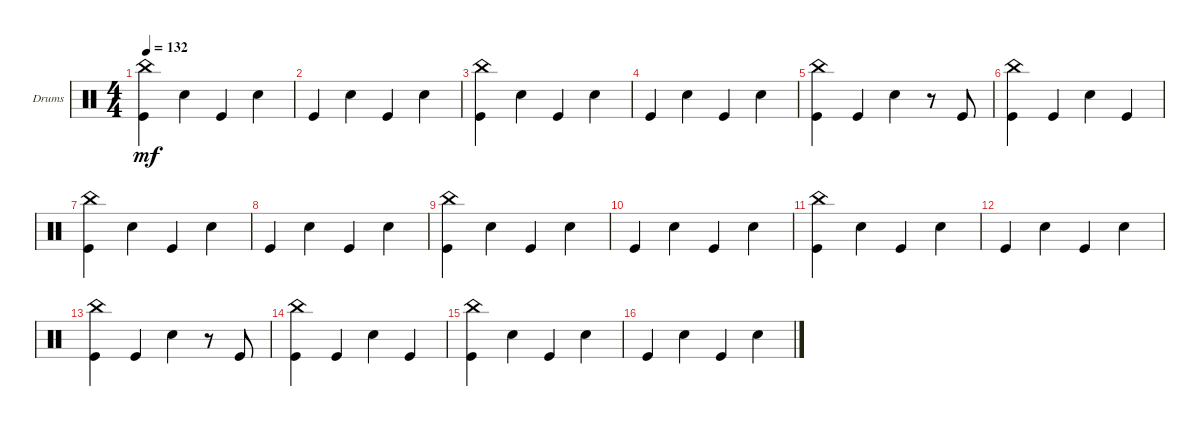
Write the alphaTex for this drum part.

\defaultSystemsLayout 4
\bracketExtendMode groupsimilarinstruments
\firstSystemTrackNameOrientation horizontal
\otherSystemsTrackNameOrientation horizontal
\track ("Drumkit" "Drums") {instrument percussion}
\staff {score}
\articulation defaults
\ts (4 4)
\tempo 132
\clef neutral
\scale
0.472222
\ks c
("Kick (hit)" "China (hit)").4{dy mf} "Snare (hit) 2".4 "Kick (hit)".4 "Snare (hit) 2".4 |
\scale
0.263889 "Kick (hit)".4 "Snare (hit) 2".4 "Kick (hit)".4 "Snare (hit) 2".4 |
\scale
0.263889 ("Kick (hit)" "China (hit)").4 "Snare (hit) 2".4 "Kick (hit)".4 "Snare (hit) 2".4 |
\scale
0.333333 "Kick (hit)".4 "Snare (hit) 2".4 "Kick (hit)".4 "Snare (hit) 2".4 |
\scale
0.333333 ("Kick (hit)" "China (hit)").4 "Kick (hit)".4 "Snare (hit) 2".4 r.8 "Kick (hit)".8 |
\scale
0.333333 ("Kick (hit)" "China (hit)").4 "Kick (hit)".4 "Snare (hit) 2".4 "Kick (hit)".4 |
\scale
0.333333 ("Kick (hit)" "China (hit)").4 "Snare (hit) 2".4 "Kick (hit)".4 "Snare (hit) 2".4 |
\scale
0.333333 "Kick (hit)".4 "Snare (hit) 2".4 "Kick (hit)".4 "Snare (hit) 2".4 |
\scale
0.333333 ("Kick (hit)" "China (hit)").4 "Snare (hit) 2".4 "Kick (hit)".4 "Snare (hit) 2".4 |
\scale
0.333333 "Kick (hit)".4 "Snare (hit) 2".4 "Kick (hit)".4 "Snare (hit) 2".4 |
\scale
0.333333 ("Kick (hit)" "China (hit)").4 "Snare (hit) 2".4 "Kick (hit)".4 "Snare (hit) 2".4 |
\scale
0.333333 "Kick (hit)".4 "Snare (hit) 2".4 "Kick (hit)".4 "Snare (hit) 2".4 |
\scale
0.333333 ("Kick (hit)" "China (hit)").4 "Kick (hit)".4 "Snare (hit) 2".4 r.8 "Kick (hit)".8 |
\scale
0.333333 ("Kick (hit)" "China (hit)").4 "Kick (hit)".4 "Snare (hit) 2".4 "Kick (hit)".4 |
\scale
0.333333 ("Kick (hit)" "China (hit)").4 "Snare (hit) 2".4 "Kick (hit)".4 "Snare (hit) 2".4 |
"Kick (hit)".4 "Snare (hit) 2".4 "Kick (hit)".4 "Snare (hit) 2".4
